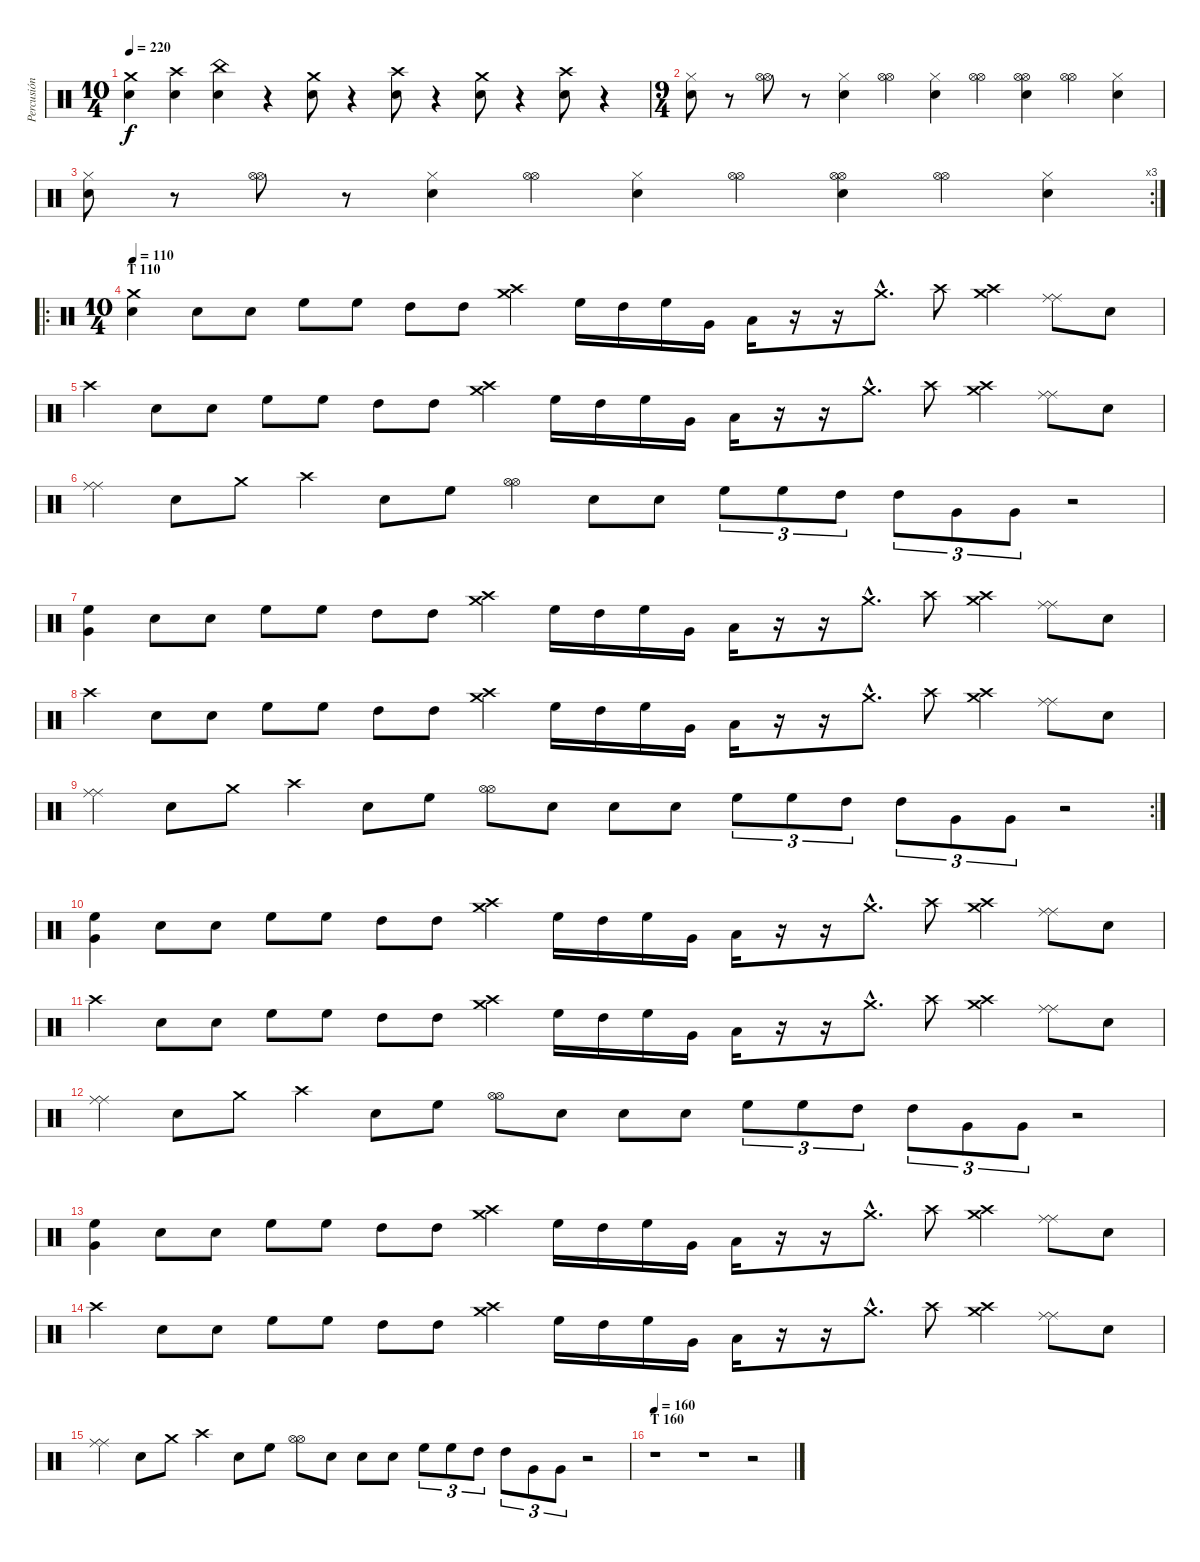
\track ("Percusión - Compa" "Percusión ") {instrument percussion}
\staff {score}
\articulation defaults
\ts (10 4)
\tempo 220
\clef neutral
\ks c
("Crash medium (hit)" "Electric Snare (hit)").4{dy f} ("Crash high (hit)" "Electric Snare (hit)").4 ("China (hit)" "Electric Snare (hit)").4 r.4 ("Crash medium (hit)" "Electric Snare (hit)").8 r.4 ("Crash high (hit)" "Electric Snare (hit)").8 r.4 ("Crash medium (hit)" "Electric Snare (hit)").8 r.4 ("Crash high (hit)" "Electric Snare (hit)").8 r.4 |
\ts (9 4)
("Hi-Hat (closed)" "Electric Snare (hit)").8 r.8 ("Hi-Hat (open)" "Hi-Hat (open)").8 r.8 ("Hi-Hat (closed)" "Electric Snare (hit)").4 ("Hi-Hat (open)" "Hi-Hat (open)").4 ("Hi-Hat (closed)" "Electric Snare (hit)").4 ("Hi-Hat (open)" "Hi-Hat (open)").4 ("Hi-Hat (open)" "Hi-Hat (open)" "Electric Snare (hit)").4 ("Hi-Hat (open)" "Hi-Hat (open)").4 ("Hi-Hat (closed)" "Electric Snare (hit)").4 |
\rc 3
("Hi-Hat (closed)" "Electric Snare (hit)").8 r.8 ("Hi-Hat (open)" "Hi-Hat (open)").8 r.8 ("Hi-Hat (closed)" "Electric Snare (hit)").4 ("Hi-Hat (open)" "Hi-Hat (open)").4 ("Hi-Hat (closed)" "Electric Snare (hit)").4 ("Hi-Hat (open)" "Hi-Hat (open)").4 ("Hi-Hat (open)" "Hi-Hat (open)" "Electric Snare (hit)").4 ("Hi-Hat (open)" "Hi-Hat (open)").4 ("Hi-Hat (closed)" "Electric Snare (hit)").4 |
\ro
\ts (10 4)
\section ("" "T 110")
\tempo 110
("Crash medium (hit)" "Electric Snare (hit)").4 "Electric Snare (hit)".8 "Electric Snare (hit)".8 "High Floor Tom (hit)".8 "High Floor Tom (hit)".8 "High Tom (hit)".8 "High Tom (hit)".8 ("Crash high (hit)" "Crash medium (hit)").4 "High Floor Tom (hit)".16 "High Tom (hit)".16 "High Floor Tom (hit)".16 "Very Low Tom (hit)".16 "Low Tom (hit)".16 r.16 r.16 "Crash medium (hit)"{hac}.8{d} "Crash high (hit)".8 ("Crash high (hit)" "Crash medium (hit)").4 ("Ride (middle)" "Ride (middle)").8 "Electric Snare (hit)".8 |
"Crash high (hit)".4 "Electric Snare (hit)".8 "Electric Snare (hit)".8 "High Floor Tom (hit)".8 "High Floor Tom (hit)".8 "High Tom (hit)".8 "High Tom (hit)".8 ("Crash high (hit)" "Crash medium (hit)").4 "High Floor Tom (hit)".16 "High Tom (hit)".16 "High Floor Tom (hit)".16 "Very Low Tom (hit)".16 "Low Tom (hit)".16 r.16 r.16 "Crash medium (hit)"{hac}.8{d} "Crash high (hit)".8 ("Crash high (hit)" "Crash medium (hit)").4 ("Ride (middle)" "Ride (middle)").8 "Electric Snare (hit)".8 |
("Ride (middle)" "Ride (middle)").4 "Electric Snare (hit)".8 "Crash medium (hit)".8 "Crash high (hit)".4 "Electric Snare (hit)".8 "High Floor Tom (hit)".8 ("Hi-Hat (open)" "Hi-Hat (open)").4 "Electric Snare (hit)".8 "Electric Snare (hit)".8 "High Floor Tom (hit)".8{tu (3 2)} "High Floor Tom (hit)".8{tu (3 2)} "High Tom (hit)".8{tu (3 2)} "High Tom (hit)".8{tu (3 2)} "Very Low Tom (hit)".8{tu (3 2)} "Very Low Tom (hit)".8{tu (3 2)} r.2 |
("High Floor Tom (hit)" "Very Low Tom (hit)").4 "Electric Snare (hit)".8 "Electric Snare (hit)".8 "High Floor Tom (hit)".8 "High Floor Tom (hit)".8 "High Tom (hit)".8 "High Tom (hit)".8 ("Crash high (hit)" "Crash medium (hit)").4 "High Floor Tom (hit)".16 "High Tom (hit)".16 "High Floor Tom (hit)".16 "Very Low Tom (hit)".16 "Low Tom (hit)".16 r.16 r.16 "Crash medium (hit)"{hac}.8{d} "Crash high (hit)".8 ("Crash high (hit)" "Crash medium (hit)").4 ("Ride (middle)" "Ride (middle)").8 "Electric Snare (hit)".8 |
"Crash high (hit)".4 "Electric Snare (hit)".8 "Electric Snare (hit)".8 "High Floor Tom (hit)".8 "High Floor Tom (hit)".8 "High Tom (hit)".8 "High Tom (hit)".8 ("Crash high (hit)" "Crash medium (hit)").4 "High Floor Tom (hit)".16 "High Tom (hit)".16 "High Floor Tom (hit)".16 "Very Low Tom (hit)".16 "Low Tom (hit)".16 r.16 r.16 "Crash medium (hit)"{hac}.8{d} "Crash high (hit)".8 ("Crash high (hit)" "Crash medium (hit)").4 ("Ride (middle)" "Ride (middle)").8 "Electric Snare (hit)".8 |
\rc 2
("Ride (middle)" "Ride (middle)").4 "Electric Snare (hit)".8 "Crash medium (hit)".8 "Crash high (hit)".4 "Electric Snare (hit)".8 "High Floor Tom (hit)".8 ("Hi-Hat (open)" "Hi-Hat (open)").8 "Electric Snare (hit)".8 "Electric Snare (hit)".8 "Electric Snare (hit)".8 "High Floor Tom (hit)".8{tu (3 2)} "High Floor Tom (hit)".8{tu (3 2)} "High Tom (hit)".8{tu (3 2)} "High Tom (hit)".8{tu (3 2)} "Very Low Tom (hit)".8{tu (3 2)} "Very Low Tom (hit)".8{tu (3 2)} r.2 |
("High Floor Tom (hit)" "Very Low Tom (hit)").4 "Electric Snare (hit)".8 "Electric Snare (hit)".8 "High Floor Tom (hit)".8 "High Floor Tom (hit)".8 "High Tom (hit)".8 "High Tom (hit)".8 ("Crash high (hit)" "Crash medium (hit)").4 "High Floor Tom (hit)".16 "High Tom (hit)".16 "High Floor Tom (hit)".16 "Very Low Tom (hit)".16 "Low Tom (hit)".16 r.16 r.16 "Crash medium (hit)"{hac}.8{d} "Crash high (hit)".8 ("Crash high (hit)" "Crash medium (hit)").4 ("Ride (middle)" "Ride (middle)").8 "Electric Snare (hit)".8 |
"Crash high (hit)".4 "Electric Snare (hit)".8 "Electric Snare (hit)".8 "High Floor Tom (hit)".8 "High Floor Tom (hit)".8 "High Tom (hit)".8 "High Tom (hit)".8 ("Crash high (hit)" "Crash medium (hit)").4 "High Floor Tom (hit)".16 "High Tom (hit)".16 "High Floor Tom (hit)".16 "Very Low Tom (hit)".16 "Low Tom (hit)".16 r.16 r.16 "Crash medium (hit)"{hac}.8{d} "Crash high (hit)".8 ("Crash high (hit)" "Crash medium (hit)").4 ("Ride (middle)" "Ride (middle)").8 "Electric Snare (hit)".8 |
("Ride (middle)" "Ride (middle)").4 "Electric Snare (hit)".8 "Crash medium (hit)".8 "Crash high (hit)".4 "Electric Snare (hit)".8 "High Floor Tom (hit)".8 ("Hi-Hat (open)" "Hi-Hat (open)").8 "Electric Snare (hit)".8 "Electric Snare (hit)".8 "Electric Snare (hit)".8 "High Floor Tom (hit)".8{tu (3 2)} "High Floor Tom (hit)".8{tu (3 2)} "High Tom (hit)".8{tu (3 2)} "High Tom (hit)".8{tu (3 2)} "Very Low Tom (hit)".8{tu (3 2)} "Very Low Tom (hit)".8{tu (3 2)} r.2 |
("High Floor Tom (hit)" "Very Low Tom (hit)").4 "Electric Snare (hit)".8 "Electric Snare (hit)".8 "High Floor Tom (hit)".8 "High Floor Tom (hit)".8 "High Tom (hit)".8 "High Tom (hit)".8 ("Crash high (hit)" "Crash medium (hit)").4 "High Floor Tom (hit)".16 "High Tom (hit)".16 "High Floor Tom (hit)".16 "Very Low Tom (hit)".16 "Low Tom (hit)".16 r.16 r.16 "Crash medium (hit)"{hac}.8{d} "Crash high (hit)".8 ("Crash high (hit)" "Crash medium (hit)").4 ("Ride (middle)" "Ride (middle)").8 "Electric Snare (hit)".8 |
"Crash high (hit)".4 "Electric Snare (hit)".8 "Electric Snare (hit)".8 "High Floor Tom (hit)".8 "High Floor Tom (hit)".8 "High Tom (hit)".8 "High Tom (hit)".8 ("Crash high (hit)" "Crash medium (hit)").4 "High Floor Tom (hit)".16 "High Tom (hit)".16 "High Floor Tom (hit)".16 "Very Low Tom (hit)".16 "Low Tom (hit)".16 r.16 r.16 "Crash medium (hit)"{hac}.8{d} "Crash high (hit)".8 ("Crash high (hit)" "Crash medium (hit)").4 ("Ride (middle)" "Ride (middle)").8 "Electric Snare (hit)".8 |
("Ride (middle)" "Ride (middle)").4 "Electric Snare (hit)".8 "Crash medium (hit)".8 "Crash high (hit)".4 "Electric Snare (hit)".8 "High Floor Tom (hit)".8 ("Hi-Hat (open)" "Hi-Hat (open)").8 "Electric Snare (hit)".8 "Electric Snare (hit)".8 "Electric Snare (hit)".8 "High Floor Tom (hit)".8{tu (3 2)} "High Floor Tom (hit)".8{tu (3 2)} "High Tom (hit)".8{tu (3 2)} "High Tom (hit)".8{tu (3 2)} "Very Low Tom (hit)".8{tu (3 2)} "Very Low Tom (hit)".8{tu (3 2)} r.2 |
\section ("" "T 160")
\tempo 160
r.1 r.1 r.2
